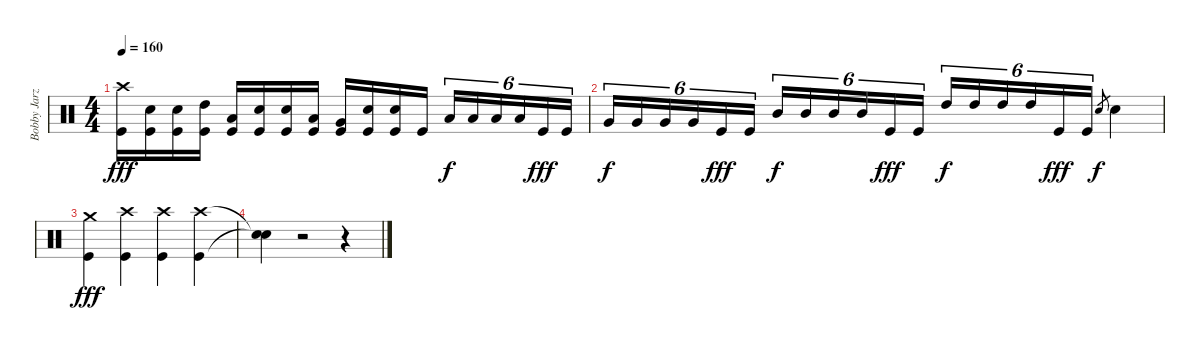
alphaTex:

\track ("Bobby Jarzombek" "Bobby Jarz") {instrument percussion}
\staff {score}
\articulation defaults
\ts (4 4)
\tempo 160
\clef neutral
\ks c
("Crash high (hit)" "Kick (hit)").16{dy fff} ("Electric Snare (hit)" "Kick (hit)").16 ("Electric Snare (hit)" "Kick (hit)").16 ("High Tom (hit)" "Kick (hit)").16 ("Low Tom (hit)" "Kick (hit)").16 ("Electric Snare (hit)" "Kick (hit)").16 ("Electric Snare (hit)" "Kick (hit)").16 ("Low Tom (hit)" "Kick (hit)").16 ("Very Low Tom (hit)" "Kick (hit)").16 ("Electric Snare (hit)" "Kick (hit)").16 ("Electric Snare (hit)" "Kick (hit)").16 "Kick (hit)".16 "Low Tom (hit)".16{tu (6 4) dy f} "Low Tom (hit)".16{tu (6 4)} "Low Tom (hit)".16{tu (6 4)} "Low Tom (hit)".16{tu (6 4)} "Kick (hit)".16{tu (6 4) dy fff} "Kick (hit)".16{tu (6 4)} |
"Very Low Tom (hit)".16{tu (6 4) dy f} "Very Low Tom (hit)".16{tu (6 4)} "Very Low Tom (hit)".16{tu (6 4)} "Very Low Tom (hit)".16{tu (6 4)} "Kick (hit)".16{tu (6 4) dy fff} "Kick (hit)".16{tu (6 4)} "Mid Tom (hit)".16{tu (6 4) dy f} "Mid Tom (hit)".16{tu (6 4)} "Mid Tom (hit)".16{tu (6 4)} "Mid Tom (hit)".16{tu (6 4)} "Kick (hit)".16{tu (6 4) dy fff} "Kick (hit)".16{tu (6 4)} "High Tom (hit)".16{tu (6 4) dy f} "High Tom (hit)".16{tu (6 4)} "High Tom (hit)".16{tu (6 4)} "High Tom (hit)".16{tu (6 4)} "Kick (hit)".16{tu (6 4) dy fff} "Kick (hit)".16{tu (6 4)} "Electric Snare (hit)".8{gr dy f} "Electric Snare (hit)".4 |
("Crash medium (hit)" "Kick (hit)").4{dy fff} ("Crash high (hit)" "Kick (hit)").4 ("Crash high (hit)" "Kick (hit)").4 ("Crash high (hit)" "Kick (hit)").4 |
("Snare (hit)"{t} "Snare (hit)"{t}).4 r.2 r.4
